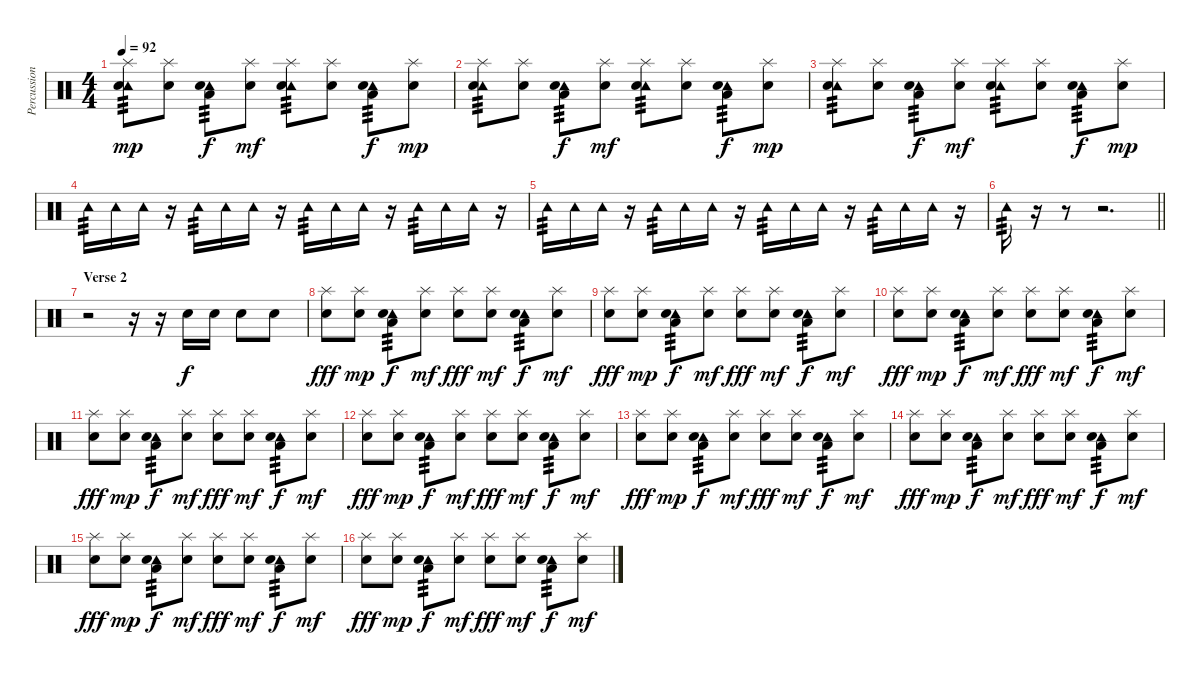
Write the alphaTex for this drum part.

\track ("Percussion" "Percussion") {instrument percussion}
\staff {score}
\articulation defaults
\ts (4 4)
\tempo 92
\clef neutral
\ks c
("Tambourine (hit)" "Splash (hit)" "Snare (hit) 2").8{tp 3 dy mp} ("Splash (hit)" "Snare (hit) 2").8 ("Tambourine (hit)" "Low Floor Tom (hit)" "Snare (hit) 2").8{tp 3 dy f} ("Splash (hit)" "Snare (hit) 2").8{dy mf} ("Tambourine (hit)" "Splash (hit)" "Snare (hit) 2").8{tp 3} ("Splash (hit)" "Snare (hit) 2").8 ("Tambourine (hit)" "Low Floor Tom (hit)" "Snare (hit) 2").8{tp 3 dy f} ("Splash (hit)" "Snare (hit) 2").8{dy mp} |
("Tambourine (hit)" "Splash (hit)" "Snare (hit) 2").8{tp 3} ("Splash (hit)" "Snare (hit) 2").8 ("Tambourine (hit)" "Low Floor Tom (hit)" "Snare (hit) 2").8{tp 3 dy f} ("Splash (hit)" "Snare (hit) 2").8{dy mf} ("Tambourine (hit)" "Splash (hit)" "Snare (hit) 2").8{tp 3} ("Splash (hit)" "Snare (hit) 2").8 ("Tambourine (hit)" "Low Floor Tom (hit)" "Snare (hit) 2").8{tp 3 dy f} ("Splash (hit)" "Snare (hit) 2").8{dy mp} |
("Tambourine (hit)" "Splash (hit)" "Snare (hit) 2").8{tp 3} ("Splash (hit)" "Snare (hit) 2").8 ("Tambourine (hit)" "Low Floor Tom (hit)" "Snare (hit) 2").8{tp 3 dy f} ("Splash (hit)" "Snare (hit) 2").8{dy mf} ("Tambourine (hit)" "Splash (hit)" "Snare (hit) 2").8{tp 3} ("Splash (hit)" "Snare (hit) 2").8 ("Tambourine (hit)" "Low Floor Tom (hit)" "Snare (hit) 2").8{tp 3 dy f} ("Splash (hit)" "Snare (hit) 2").8{dy mp} |
"Tambourine (hit)".16{tp 3} "Tambourine (hit)".16 "Tambourine (hit)".16 r.16 "Tambourine (hit)".16{tp 3} "Tambourine (hit)".16 "Tambourine (hit)".16 r.16 "Tambourine (hit)".16{tp 3} "Tambourine (hit)".16 "Tambourine (hit)".16 r.16 "Tambourine (hit)".16{tp 3} "Tambourine (hit)".16 "Tambourine (hit)".16 r.16 |
"Tambourine (hit)".16{tp 3} "Tambourine (hit)".16 "Tambourine (hit)".16 r.16 "Tambourine (hit)".16{tp 3} "Tambourine (hit)".16 "Tambourine (hit)".16 r.16 "Tambourine (hit)".16{tp 3} "Tambourine (hit)".16 "Tambourine (hit)".16 r.16 "Tambourine (hit)".16{tp 3} "Tambourine (hit)".16 "Tambourine (hit)".16 r.16 |
\barLineRight lightlight "Tambourine (hit)".16{tp 3}
r.16 r.8 r.2{d} |
\section ("" "Verse 2")
r.2 r.16 r.16 "Snare (hit) 2".16{dy f} "Snare (hit) 2".16 "Snare (hit) 2".8 "Snare (hit) 2".8 |
("Splash (hit)" "Snare (hit) 2").8{dy fff} ("Splash (hit)" "Snare (hit) 2").8{dy mp} ("Tambourine (hit)" "Low Floor Tom (hit)" "Snare (hit) 2").8{tp 3 dy f} ("Splash (hit)" "Snare (hit) 2").8{dy mf} ("Splash (hit)" "Snare (hit) 2").8{dy fff} ("Splash (hit)" "Snare (hit) 2").8{dy mf} ("Tambourine (hit)" "Low Floor Tom (hit)" "Snare (hit) 2").8{tp 3 dy f} ("Splash (hit)" "Snare (hit) 2").8{dy mf} |
("Splash (hit)" "Snare (hit) 2").8{dy fff} ("Splash (hit)" "Snare (hit) 2").8{dy mp} ("Tambourine (hit)" "Low Floor Tom (hit)" "Snare (hit) 2").8{tp 3 dy f} ("Splash (hit)" "Snare (hit) 2").8{dy mf} ("Splash (hit)" "Snare (hit) 2").8{dy fff} ("Splash (hit)" "Snare (hit) 2").8{dy mf} ("Tambourine (hit)" "Low Floor Tom (hit)" "Snare (hit) 2").8{tp 3 dy f} ("Splash (hit)" "Snare (hit) 2").8{dy mf} |
("Splash (hit)" "Snare (hit) 2").8{dy fff} ("Splash (hit)" "Snare (hit) 2").8{dy mp} ("Tambourine (hit)" "Low Floor Tom (hit)" "Snare (hit) 2").8{tp 3 dy f} ("Splash (hit)" "Snare (hit) 2").8{dy mf} ("Splash (hit)" "Snare (hit) 2").8{dy fff} ("Splash (hit)" "Snare (hit) 2").8{dy mf} ("Tambourine (hit)" "Low Floor Tom (hit)" "Snare (hit) 2").8{tp 3 dy f} ("Splash (hit)" "Snare (hit) 2").8{dy mf} |
("Splash (hit)" "Snare (hit) 2").8{dy fff} ("Splash (hit)" "Snare (hit) 2").8{dy mp} ("Tambourine (hit)" "Low Floor Tom (hit)" "Snare (hit) 2").8{tp 3 dy f} ("Splash (hit)" "Snare (hit) 2").8{dy mf} ("Splash (hit)" "Snare (hit) 2").8{dy fff} ("Splash (hit)" "Snare (hit) 2").8{dy mf} ("Tambourine (hit)" "Low Floor Tom (hit)" "Snare (hit) 2").8{tp 3 dy f} ("Splash (hit)" "Snare (hit) 2").8{dy mf} |
("Splash (hit)" "Snare (hit) 2").8{dy fff} ("Splash (hit)" "Snare (hit) 2").8{dy mp} ("Tambourine (hit)" "Low Floor Tom (hit)" "Snare (hit) 2").8{tp 3 dy f} ("Splash (hit)" "Snare (hit) 2").8{dy mf} ("Splash (hit)" "Snare (hit) 2").8{dy fff} ("Splash (hit)" "Snare (hit) 2").8{dy mf} ("Tambourine (hit)" "Low Floor Tom (hit)" "Snare (hit) 2").8{tp 3 dy f} ("Splash (hit)" "Snare (hit) 2").8{dy mf} |
("Splash (hit)" "Snare (hit) 2").8{dy fff} ("Splash (hit)" "Snare (hit) 2").8{dy mp} ("Tambourine (hit)" "Low Floor Tom (hit)" "Snare (hit) 2").8{tp 3 dy f} ("Splash (hit)" "Snare (hit) 2").8{dy mf} ("Splash (hit)" "Snare (hit) 2").8{dy fff} ("Splash (hit)" "Snare (hit) 2").8{dy mf} ("Tambourine (hit)" "Low Floor Tom (hit)" "Snare (hit) 2").8{tp 3 dy f} ("Splash (hit)" "Snare (hit) 2").8{dy mf} |
("Splash (hit)" "Snare (hit) 2").8{dy fff} ("Splash (hit)" "Snare (hit) 2").8{dy mp} ("Tambourine (hit)" "Low Floor Tom (hit)" "Snare (hit) 2").8{tp 3 dy f} ("Splash (hit)" "Snare (hit) 2").8{dy mf} ("Splash (hit)" "Snare (hit) 2").8{dy fff} ("Splash (hit)" "Snare (hit) 2").8{dy mf} ("Tambourine (hit)" "Low Floor Tom (hit)" "Snare (hit) 2").8{tp 3 dy f} ("Splash (hit)" "Snare (hit) 2").8{dy mf} |
("Splash (hit)" "Snare (hit) 2").8{dy fff} ("Splash (hit)" "Snare (hit) 2").8{dy mp} ("Tambourine (hit)" "Low Floor Tom (hit)" "Snare (hit) 2").8{tp 3 dy f} ("Splash (hit)" "Snare (hit) 2").8{dy mf} ("Splash (hit)" "Snare (hit) 2").8{dy fff} ("Splash (hit)" "Snare (hit) 2").8{dy mf} ("Tambourine (hit)" "Low Floor Tom (hit)" "Snare (hit) 2").8{tp 3 dy f} ("Splash (hit)" "Snare (hit) 2").8{dy mf} |
("Splash (hit)" "Snare (hit) 2").8{dy fff} ("Splash (hit)" "Snare (hit) 2").8{dy mp} ("Tambourine (hit)" "Low Floor Tom (hit)" "Snare (hit) 2").8{tp 3 dy f} ("Splash (hit)" "Snare (hit) 2").8{dy mf} ("Splash (hit)" "Snare (hit) 2").8{dy fff} ("Splash (hit)" "Snare (hit) 2").8{dy mf} ("Tambourine (hit)" "Low Floor Tom (hit)" "Snare (hit) 2").8{tp 3 dy f} ("Splash (hit)" "Snare (hit) 2").8{dy mf}
